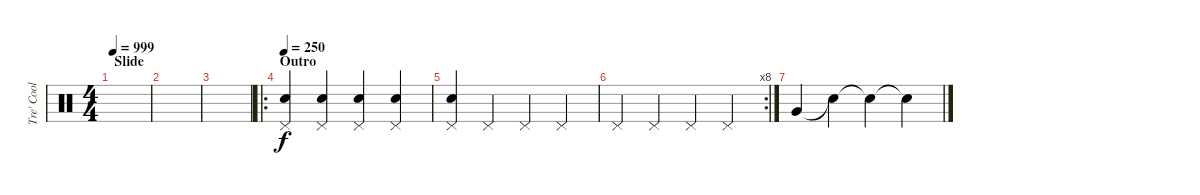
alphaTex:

\track ("Tre' Cool" "Tre' Cool") {instrument percussion}
\staff {score}
\articulation defaults
\ts (4 4)
\section ("" "Slide")
\tempo 999
\clef neutral
\ks c
|
|
|
\ro
\section ("" "Outro")
\tempo 250
("Pedal Hi-Hat (hit)" "Snare (hit) 2").4 ("Pedal Hi-Hat (hit)" "Snare (hit) 2").4 ("Pedal Hi-Hat (hit)" "Snare (hit) 2").4 ("Pedal Hi-Hat (hit)" "Snare (hit) 2").4 |
("Pedal Hi-Hat (hit)" "Snare (hit) 2").4 "Pedal Hi-Hat (hit)".4 "Pedal Hi-Hat (hit)".4 "Pedal Hi-Hat (hit)".4 |
\rc 8 "Pedal Hi-Hat (hit)".4 "Pedal Hi-Hat (hit)".4 "Pedal Hi-Hat (hit)".4 "Pedal Hi-Hat (hit)".4
|
"Very Low Tom (hit)".4 "Snare (hit)"{t}.4 "Snare (hit)"{t}.4 "Snare (hit)"{t}.4
